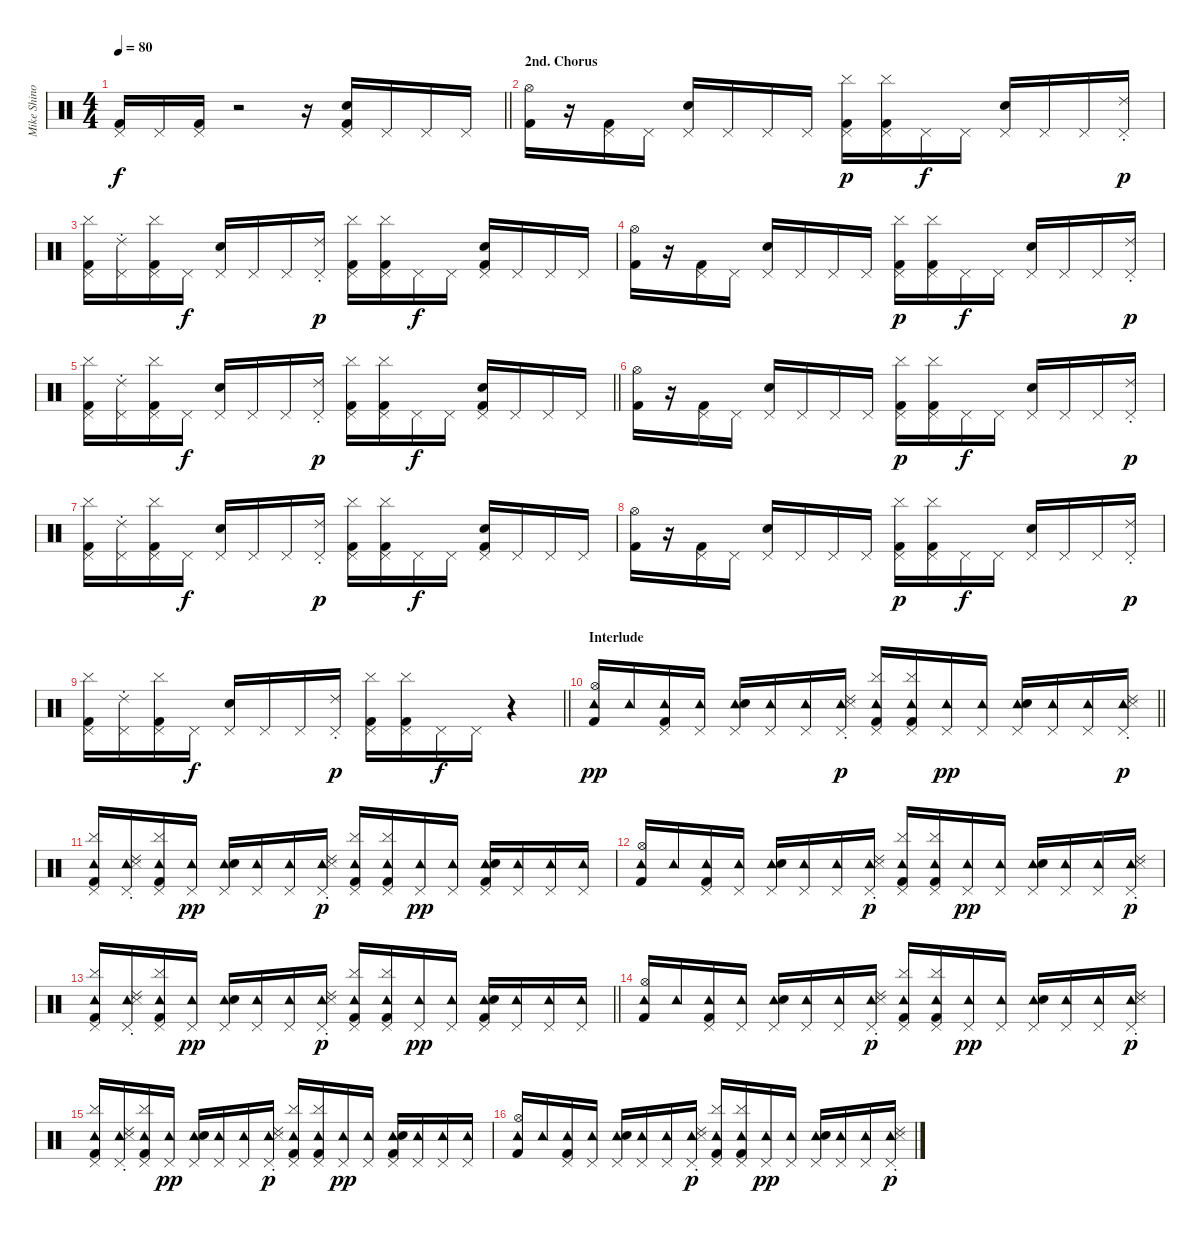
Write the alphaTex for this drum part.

\track ("Mike Shinoda - Percussion" "Mike Shino") {instrument percussion}
\staff {score}
\articulation defaults
\ts (4 4)
\tempo 80
\clef neutral
\barLineRight lightlight
\ks c
("Pedal Hi-Hat (hit)" "Kick (hit) 2").16{dy f} "Pedal Hi-Hat (hit)".16 ("Pedal Hi-Hat (hit)" "Kick (hit) 2").16 r.2 r.16 ("Pedal Hi-Hat (hit)" "Electric Snare (hit)" "Kick (hit) 2").16 "Pedal Hi-Hat (hit)".16 "Pedal Hi-Hat (hit)".16 "Pedal Hi-Hat (hit)".16 |
\section ("" "2nd. Chorus")
("Hi-Hat (open)" "Kick (hit) 2").16 r.16 ("Pedal Hi-Hat (hit)" "Kick (hit) 2").16 "Pedal Hi-Hat (hit)".16 ("Pedal Hi-Hat (hit)" "Electric Snare (hit)").16 "Pedal Hi-Hat (hit)".16 "Pedal Hi-Hat (hit)".16 "Pedal Hi-Hat (hit)".16 ("Pedal Hi-Hat (hit)" "Cymbal (hit)" "Kick (hit) 2").16{dy p} ("Pedal Hi-Hat (hit)" "Cymbal (hit)" "Kick (hit) 2").16 "Pedal Hi-Hat (hit)".16{dy f} "Pedal Hi-Hat (hit)".16 ("Pedal Hi-Hat (hit)" "Electric Snare (hit)").16 "Pedal Hi-Hat (hit)".16 "Pedal Hi-Hat (hit)".16 ("Pedal Hi-Hat (hit)" "Ride (choke) 2").16{dy p} |
("Pedal Hi-Hat (hit)" "Cymbal (hit)" "Kick (hit) 2").16 ("Pedal Hi-Hat (hit)" "Ride (choke) 2").16 ("Pedal Hi-Hat (hit)" "Cymbal (hit)" "Kick (hit) 2").16 "Pedal Hi-Hat (hit)".16{dy f} ("Pedal Hi-Hat (hit)" "Electric Snare (hit)").16 "Pedal Hi-Hat (hit)".16 "Pedal Hi-Hat (hit)".16 ("Pedal Hi-Hat (hit)" "Ride (choke) 2").16{dy p} ("Pedal Hi-Hat (hit)" "Cymbal (hit)" "Kick (hit) 2").16 ("Pedal Hi-Hat (hit)" "Cymbal (hit)" "Kick (hit) 2").16 "Pedal Hi-Hat (hit)".16{dy f} "Pedal Hi-Hat (hit)".16 ("Pedal Hi-Hat (hit)" "Electric Snare (hit)" "Kick (hit) 2").16 "Pedal Hi-Hat (hit)".16 "Pedal Hi-Hat (hit)".16 "Pedal Hi-Hat (hit)".16 |
("Hi-Hat (open)" "Kick (hit) 2").16 r.16 ("Pedal Hi-Hat (hit)" "Kick (hit) 2").16 "Pedal Hi-Hat (hit)".16 ("Pedal Hi-Hat (hit)" "Electric Snare (hit)").16 "Pedal Hi-Hat (hit)".16 "Pedal Hi-Hat (hit)".16 "Pedal Hi-Hat (hit)".16 ("Pedal Hi-Hat (hit)" "Cymbal (hit)" "Kick (hit) 2").16{dy p} ("Pedal Hi-Hat (hit)" "Cymbal (hit)" "Kick (hit) 2").16 "Pedal Hi-Hat (hit)".16{dy f} "Pedal Hi-Hat (hit)".16 ("Pedal Hi-Hat (hit)" "Electric Snare (hit)").16 "Pedal Hi-Hat (hit)".16 "Pedal Hi-Hat (hit)".16 ("Pedal Hi-Hat (hit)" "Ride (choke) 2").16{dy p} |
\barLineRight lightlight
("Pedal Hi-Hat (hit)" "Cymbal (hit)" "Kick (hit) 2").16 ("Pedal Hi-Hat (hit)" "Ride (choke) 2").16 ("Pedal Hi-Hat (hit)" "Cymbal (hit)" "Kick (hit) 2").16 "Pedal Hi-Hat (hit)".16{dy f} ("Pedal Hi-Hat (hit)" "Electric Snare (hit)").16 "Pedal Hi-Hat (hit)".16 "Pedal Hi-Hat (hit)".16 ("Pedal Hi-Hat (hit)" "Ride (choke) 2").16{dy p} ("Pedal Hi-Hat (hit)" "Cymbal (hit)" "Kick (hit) 2").16 ("Pedal Hi-Hat (hit)" "Cymbal (hit)" "Kick (hit) 2").16 "Pedal Hi-Hat (hit)".16{dy f} "Pedal Hi-Hat (hit)".16 ("Pedal Hi-Hat (hit)" "Electric Snare (hit)" "Kick (hit) 2").16 "Pedal Hi-Hat (hit)".16 "Pedal Hi-Hat (hit)".16 "Pedal Hi-Hat (hit)".16 |
("Hi-Hat (open)" "Kick (hit) 2").16 r.16 ("Pedal Hi-Hat (hit)" "Kick (hit) 2").16 "Pedal Hi-Hat (hit)".16 ("Pedal Hi-Hat (hit)" "Electric Snare (hit)").16 "Pedal Hi-Hat (hit)".16 "Pedal Hi-Hat (hit)".16 "Pedal Hi-Hat (hit)".16 ("Pedal Hi-Hat (hit)" "Cymbal (hit)" "Kick (hit) 2").16{dy p} ("Pedal Hi-Hat (hit)" "Cymbal (hit)" "Kick (hit) 2").16 "Pedal Hi-Hat (hit)".16{dy f} "Pedal Hi-Hat (hit)".16 ("Pedal Hi-Hat (hit)" "Electric Snare (hit)").16 "Pedal Hi-Hat (hit)".16 "Pedal Hi-Hat (hit)".16 ("Pedal Hi-Hat (hit)" "Ride (choke) 2").16{dy p} |
("Pedal Hi-Hat (hit)" "Cymbal (hit)" "Kick (hit) 2").16 ("Pedal Hi-Hat (hit)" "Ride (choke) 2").16 ("Pedal Hi-Hat (hit)" "Cymbal (hit)" "Kick (hit) 2").16 "Pedal Hi-Hat (hit)".16{dy f} ("Pedal Hi-Hat (hit)" "Electric Snare (hit)").16 "Pedal Hi-Hat (hit)".16 "Pedal Hi-Hat (hit)".16 ("Pedal Hi-Hat (hit)" "Ride (choke) 2").16{dy p} ("Pedal Hi-Hat (hit)" "Cymbal (hit)" "Kick (hit) 2").16 ("Pedal Hi-Hat (hit)" "Cymbal (hit)" "Kick (hit) 2").16 "Pedal Hi-Hat (hit)".16{dy f} "Pedal Hi-Hat (hit)".16 ("Pedal Hi-Hat (hit)" "Electric Snare (hit)" "Kick (hit) 2").16 "Pedal Hi-Hat (hit)".16 "Pedal Hi-Hat (hit)".16 "Pedal Hi-Hat (hit)".16 |
("Hi-Hat (open)" "Kick (hit) 2").16 r.16 ("Pedal Hi-Hat (hit)" "Kick (hit) 2").16 "Pedal Hi-Hat (hit)".16 ("Pedal Hi-Hat (hit)" "Electric Snare (hit)").16 "Pedal Hi-Hat (hit)".16 "Pedal Hi-Hat (hit)".16 "Pedal Hi-Hat (hit)".16 ("Pedal Hi-Hat (hit)" "Cymbal (hit)" "Kick (hit) 2").16{dy p} ("Pedal Hi-Hat (hit)" "Cymbal (hit)" "Kick (hit) 2").16 "Pedal Hi-Hat (hit)".16{dy f} "Pedal Hi-Hat (hit)".16 ("Pedal Hi-Hat (hit)" "Electric Snare (hit)").16 "Pedal Hi-Hat (hit)".16 "Pedal Hi-Hat (hit)".16 ("Pedal Hi-Hat (hit)" "Ride (choke) 2").16{dy p} |
\barLineRight lightlight
("Pedal Hi-Hat (hit)" "Cymbal (hit)" "Kick (hit) 2").16 ("Pedal Hi-Hat (hit)" "Ride (choke) 2").16 ("Pedal Hi-Hat (hit)" "Cymbal (hit)" "Kick (hit) 2").16 "Pedal Hi-Hat (hit)".16{dy f} ("Pedal Hi-Hat (hit)" "Electric Snare (hit)").16 "Pedal Hi-Hat (hit)".16 "Pedal Hi-Hat (hit)".16 ("Pedal Hi-Hat (hit)" "Ride (choke) 2").16{dy p} ("Pedal Hi-Hat (hit)" "Cymbal (hit)" "Kick (hit) 2").16 ("Pedal Hi-Hat (hit)" "Cymbal (hit)" "Kick (hit) 2").16 "Pedal Hi-Hat (hit)".16{dy f} "Pedal Hi-Hat (hit)".16 r.4 |
\section ("" "Interlude")
\barLineRight lightlight
("Tambourine (hit)" "Hi-Hat (open)" "Kick (hit) 2").16{dy pp} "Tambourine (hit)".16 ("Tambourine (hit)" "Pedal Hi-Hat (hit)" "Kick (hit) 2").16 ("Tambourine (hit)" "Pedal Hi-Hat (hit)").16 ("Tambourine (hit)" "Pedal Hi-Hat (hit)" "Electric Snare (hit)").16 ("Tambourine (hit)" "Pedal Hi-Hat (hit)").16 ("Tambourine (hit)" "Pedal Hi-Hat (hit)").16 ("Tambourine (hit)" "Pedal Hi-Hat (hit)" "Snare (side stick) 3" "Ride (choke) 2").16{dy p} ("Tambourine (hit)" "Pedal Hi-Hat (hit)" "Cymbal (hit)" "Kick (hit) 2").16 ("Tambourine (hit)" "Pedal Hi-Hat (hit)" "Cymbal (hit)" "Kick (hit) 2").16 ("Tambourine (hit)" "Pedal Hi-Hat (hit)").16{dy pp} ("Tambourine (hit)" "Pedal Hi-Hat (hit)").16 ("Tambourine (hit)" "Pedal Hi-Hat (hit)" "Electric Snare (hit)").16 ("Tambourine (hit)" "Pedal Hi-Hat (hit)").16 ("Tambourine (hit)" "Pedal Hi-Hat (hit)").16 ("Tambourine (hit)" "Pedal Hi-Hat (hit)" "Snare (side stick) 3" "Ride (choke) 2").16{dy p} |
("Tambourine (hit)" "Pedal Hi-Hat (hit)" "Cymbal (hit)" "Kick (hit) 2").16 ("Tambourine (hit)" "Pedal Hi-Hat (hit)" "Snare (side stick) 3" "Ride (choke) 2").16 ("Tambourine (hit)" "Pedal Hi-Hat (hit)" "Cymbal (hit)" "Kick (hit) 2").16 ("Tambourine (hit)" "Pedal Hi-Hat (hit)").16{dy pp} ("Tambourine (hit)" "Pedal Hi-Hat (hit)" "Electric Snare (hit)").16 ("Tambourine (hit)" "Pedal Hi-Hat (hit)").16 ("Tambourine (hit)" "Pedal Hi-Hat (hit)").16 ("Tambourine (hit)" "Pedal Hi-Hat (hit)" "Snare (side stick) 3" "Ride (choke) 2").16{dy p} ("Tambourine (hit)" "Pedal Hi-Hat (hit)" "Cymbal (hit)" "Kick (hit) 2").16 ("Tambourine (hit)" "Pedal Hi-Hat (hit)" "Cymbal (hit)" "Kick (hit) 2").16 ("Tambourine (hit)" "Pedal Hi-Hat (hit)").16{dy pp} ("Tambourine (hit)" "Pedal Hi-Hat (hit)").16 ("Tambourine (hit)" "Pedal Hi-Hat (hit)" "Electric Snare (hit)" "Kick (hit) 2").16 ("Tambourine (hit)" "Pedal Hi-Hat (hit)").16 ("Tambourine (hit)" "Pedal Hi-Hat (hit)").16 ("Tambourine (hit)" "Pedal Hi-Hat (hit)").16 |
("Tambourine (hit)" "Hi-Hat (open)" "Kick (hit) 2").16 "Tambourine (hit)".16 ("Tambourine (hit)" "Pedal Hi-Hat (hit)" "Kick (hit) 2").16 ("Tambourine (hit)" "Pedal Hi-Hat (hit)").16 ("Tambourine (hit)" "Pedal Hi-Hat (hit)" "Electric Snare (hit)").16 ("Tambourine (hit)" "Pedal Hi-Hat (hit)").16 ("Tambourine (hit)" "Pedal Hi-Hat (hit)").16 ("Tambourine (hit)" "Pedal Hi-Hat (hit)" "Snare (side stick) 3" "Ride (choke) 2").16{dy p} ("Tambourine (hit)" "Pedal Hi-Hat (hit)" "Cymbal (hit)" "Kick (hit) 2").16 ("Tambourine (hit)" "Pedal Hi-Hat (hit)" "Cymbal (hit)" "Kick (hit) 2").16 ("Tambourine (hit)" "Pedal Hi-Hat (hit)").16{dy pp} ("Tambourine (hit)" "Pedal Hi-Hat (hit)").16 ("Tambourine (hit)" "Pedal Hi-Hat (hit)" "Electric Snare (hit)").16 ("Tambourine (hit)" "Pedal Hi-Hat (hit)").16 ("Tambourine (hit)" "Pedal Hi-Hat (hit)").16 ("Tambourine (hit)" "Pedal Hi-Hat (hit)" "Snare (side stick) 3" "Ride (choke) 2").16{dy p} |
\barLineRight lightlight
("Tambourine (hit)" "Pedal Hi-Hat (hit)" "Cymbal (hit)" "Kick (hit) 2").16 ("Tambourine (hit)" "Pedal Hi-Hat (hit)" "Snare (side stick) 3" "Ride (choke) 2").16 ("Tambourine (hit)" "Pedal Hi-Hat (hit)" "Cymbal (hit)" "Kick (hit) 2").16 ("Tambourine (hit)" "Pedal Hi-Hat (hit)").16{dy pp} ("Tambourine (hit)" "Pedal Hi-Hat (hit)" "Electric Snare (hit)").16 ("Tambourine (hit)" "Pedal Hi-Hat (hit)").16 ("Tambourine (hit)" "Pedal Hi-Hat (hit)").16 ("Tambourine (hit)" "Pedal Hi-Hat (hit)" "Snare (side stick) 3" "Ride (choke) 2").16{dy p} ("Tambourine (hit)" "Pedal Hi-Hat (hit)" "Cymbal (hit)" "Kick (hit) 2").16 ("Tambourine (hit)" "Pedal Hi-Hat (hit)" "Cymbal (hit)" "Kick (hit) 2").16 ("Tambourine (hit)" "Pedal Hi-Hat (hit)").16{dy pp} ("Tambourine (hit)" "Pedal Hi-Hat (hit)").16 ("Tambourine (hit)" "Pedal Hi-Hat (hit)" "Electric Snare (hit)" "Kick (hit) 2").16 ("Tambourine (hit)" "Pedal Hi-Hat (hit)").16 ("Tambourine (hit)" "Pedal Hi-Hat (hit)").16 ("Tambourine (hit)" "Pedal Hi-Hat (hit)").16 |
("Tambourine (hit)" "Hi-Hat (open)" "Kick (hit) 2").16 "Tambourine (hit)".16 ("Tambourine (hit)" "Pedal Hi-Hat (hit)" "Kick (hit) 2").16 ("Tambourine (hit)" "Pedal Hi-Hat (hit)").16 ("Tambourine (hit)" "Pedal Hi-Hat (hit)" "Electric Snare (hit)").16 ("Tambourine (hit)" "Pedal Hi-Hat (hit)").16 ("Tambourine (hit)" "Pedal Hi-Hat (hit)").16 ("Tambourine (hit)" "Pedal Hi-Hat (hit)" "Snare (side stick) 3" "Ride (choke) 2").16{dy p} ("Tambourine (hit)" "Pedal Hi-Hat (hit)" "Cymbal (hit)" "Kick (hit) 2").16 ("Tambourine (hit)" "Pedal Hi-Hat (hit)" "Cymbal (hit)" "Kick (hit) 2").16 ("Tambourine (hit)" "Pedal Hi-Hat (hit)").16{dy pp} ("Tambourine (hit)" "Pedal Hi-Hat (hit)").16 ("Tambourine (hit)" "Pedal Hi-Hat (hit)" "Electric Snare (hit)").16 ("Tambourine (hit)" "Pedal Hi-Hat (hit)").16 ("Tambourine (hit)" "Pedal Hi-Hat (hit)").16 ("Tambourine (hit)" "Pedal Hi-Hat (hit)" "Snare (side stick) 3" "Ride (choke) 2").16{dy p} |
("Tambourine (hit)" "Pedal Hi-Hat (hit)" "Cymbal (hit)" "Kick (hit) 2").16 ("Tambourine (hit)" "Pedal Hi-Hat (hit)" "Snare (side stick) 3" "Ride (choke) 2").16 ("Tambourine (hit)" "Pedal Hi-Hat (hit)" "Cymbal (hit)" "Kick (hit) 2").16 ("Tambourine (hit)" "Pedal Hi-Hat (hit)").16{dy pp} ("Tambourine (hit)" "Pedal Hi-Hat (hit)" "Electric Snare (hit)").16 ("Tambourine (hit)" "Pedal Hi-Hat (hit)").16 ("Tambourine (hit)" "Pedal Hi-Hat (hit)").16 ("Tambourine (hit)" "Pedal Hi-Hat (hit)" "Snare (side stick) 3" "Ride (choke) 2").16{dy p} ("Tambourine (hit)" "Pedal Hi-Hat (hit)" "Cymbal (hit)" "Kick (hit) 2").16 ("Tambourine (hit)" "Pedal Hi-Hat (hit)" "Cymbal (hit)" "Kick (hit) 2").16 ("Tambourine (hit)" "Pedal Hi-Hat (hit)").16{dy pp} ("Tambourine (hit)" "Pedal Hi-Hat (hit)").16 ("Tambourine (hit)" "Pedal Hi-Hat (hit)" "Electric Snare (hit)" "Kick (hit) 2").16 ("Tambourine (hit)" "Pedal Hi-Hat (hit)").16 ("Tambourine (hit)" "Pedal Hi-Hat (hit)").16 ("Tambourine (hit)" "Pedal Hi-Hat (hit)").16 |
("Tambourine (hit)" "Hi-Hat (open)" "Kick (hit) 2").16 "Tambourine (hit)".16 ("Tambourine (hit)" "Pedal Hi-Hat (hit)" "Kick (hit) 2").16 ("Tambourine (hit)" "Pedal Hi-Hat (hit)").16 ("Tambourine (hit)" "Pedal Hi-Hat (hit)" "Electric Snare (hit)").16 ("Tambourine (hit)" "Pedal Hi-Hat (hit)").16 ("Tambourine (hit)" "Pedal Hi-Hat (hit)").16 ("Tambourine (hit)" "Pedal Hi-Hat (hit)" "Snare (side stick) 3" "Ride (choke) 2").16{dy p} ("Tambourine (hit)" "Pedal Hi-Hat (hit)" "Cymbal (hit)" "Kick (hit) 2").16 ("Tambourine (hit)" "Pedal Hi-Hat (hit)" "Cymbal (hit)" "Kick (hit) 2").16 ("Tambourine (hit)" "Pedal Hi-Hat (hit)").16{dy pp} ("Tambourine (hit)" "Pedal Hi-Hat (hit)").16 ("Tambourine (hit)" "Pedal Hi-Hat (hit)" "Electric Snare (hit)").16 ("Tambourine (hit)" "Pedal Hi-Hat (hit)").16 ("Tambourine (hit)" "Pedal Hi-Hat (hit)").16 ("Tambourine (hit)" "Pedal Hi-Hat (hit)" "Snare (side stick) 3" "Ride (choke) 2").16{dy p}
